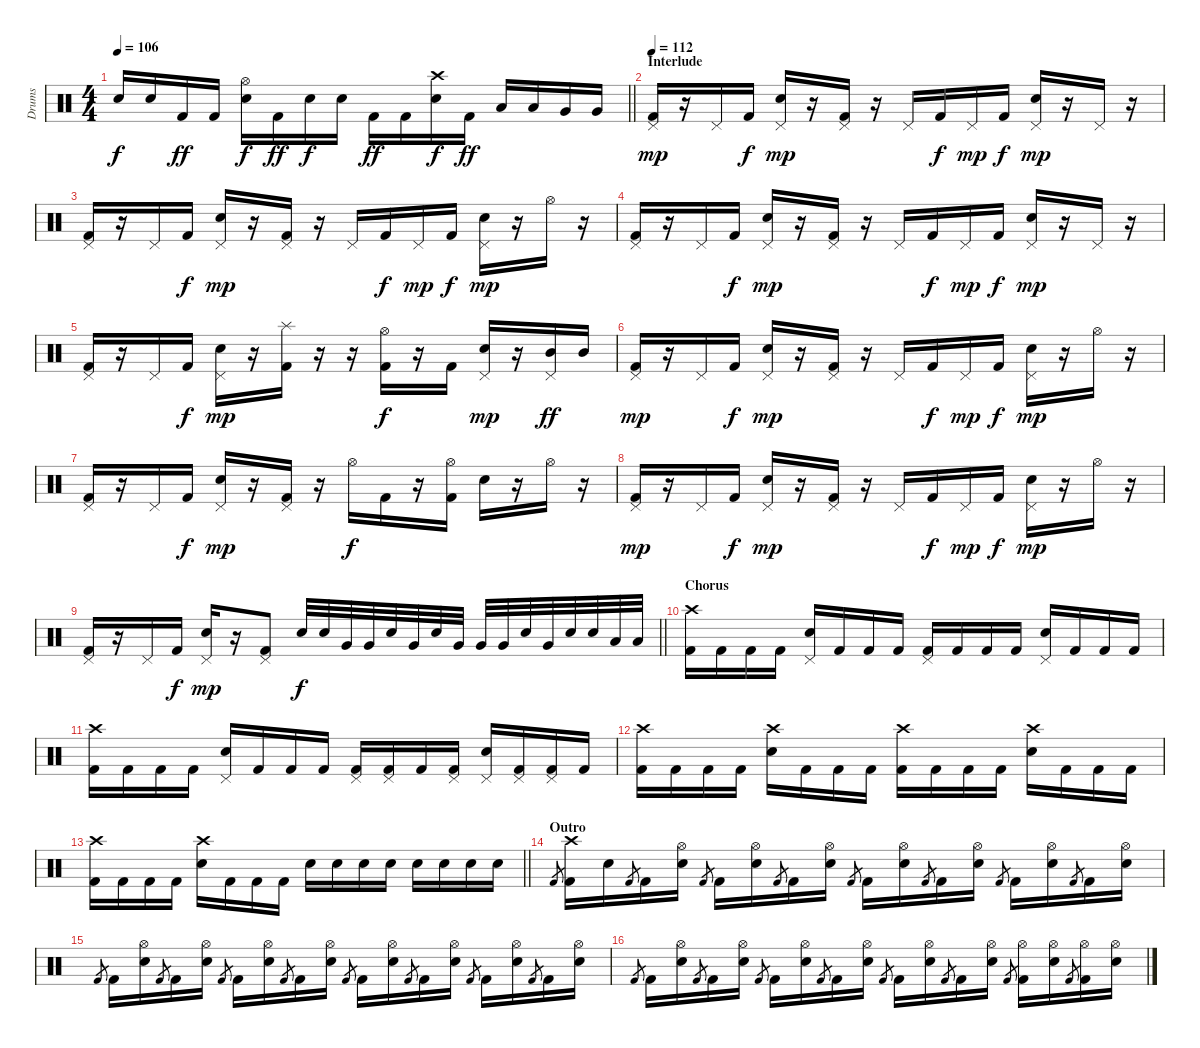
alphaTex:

\track ("Drums" "Drums") {instrument percussion}
\staff {score}
\articulation defaults
\ts (4 4)
\tempo 106
\clef neutral
\barLineRight lightlight
\ks c "Snare (hit) 2".16{dy f} "Snare (hit) 2".16 "Kick (hit) 2".16{dy ff} "Kick (hit) 2".16
("Hi-Hat (open)" "Snare (hit) 2").16{dy f} "Kick (hit) 2".16{dy ff} "Snare (hit) 2".16{dy f} "Snare (hit) 2".16 "Kick (hit) 2".16{dy ff} "Kick (hit) 2".16 ("Crash high (hit)" "Snare (hit) 2").16{dy f} "Kick (hit) 2".16{dy ff} "Low Tom (hit)".16 "Low Tom (hit)".16 "Very Low Tom (hit)".16 "Very Low Tom (hit)".16 |
\section ("" "Interlude")
\tempo 112
("Pedal Hi-Hat (hit)" "Kick (hit) 2").16{dy mp} r.16 "Pedal Hi-Hat (hit)".16 "Kick (hit) 2".16{dy f} ("Pedal Hi-Hat (hit)" "Snare (hit) 2").16{dy mp} r.16 ("Pedal Hi-Hat (hit)" "Kick (hit) 2").16 r.16 "Pedal Hi-Hat (hit)".16 "Kick (hit) 2".16{dy f} "Pedal Hi-Hat (hit)".16{dy mp} "Kick (hit) 2".16{dy f} ("Pedal Hi-Hat (hit)" "Snare (hit) 2").16{dy mp} r.16 "Pedal Hi-Hat (hit)".16 r.16 |
("Pedal Hi-Hat (hit)" "Kick (hit) 2").16 r.16 "Pedal Hi-Hat (hit)".16 "Kick (hit) 2".16{dy f} ("Pedal Hi-Hat (hit)" "Snare (hit) 2").16{dy mp} r.16 ("Pedal Hi-Hat (hit)" "Kick (hit) 2").16 r.16 "Pedal Hi-Hat (hit)".16 "Kick (hit) 2".16{dy f} "Pedal Hi-Hat (hit)".16{dy mp} "Kick (hit) 2".16{dy f} ("Pedal Hi-Hat (hit)" "Snare (hit) 2").16{dy mp} r.16 "Hi-Hat (open)".16 r.16 |
("Pedal Hi-Hat (hit)" "Kick (hit) 2").16 r.16 "Pedal Hi-Hat (hit)".16 "Kick (hit) 2".16{dy f} ("Pedal Hi-Hat (hit)" "Snare (hit) 2").16{dy mp} r.16 ("Pedal Hi-Hat (hit)" "Kick (hit) 2").16 r.16 "Pedal Hi-Hat (hit)".16 "Kick (hit) 2".16{dy f} "Pedal Hi-Hat (hit)".16{dy mp} "Kick (hit) 2".16{dy f} ("Pedal Hi-Hat (hit)" "Snare (hit) 2").16{dy mp} r.16 "Pedal Hi-Hat (hit)".16 r.16 |
("Pedal Hi-Hat (hit)" "Kick (hit) 2").16 r.16 "Pedal Hi-Hat (hit)".16 "Kick (hit) 2".16{dy f} ("Pedal Hi-Hat (hit)" "Snare (hit) 2").16{dy mp} r.16 ("Splash (hit)" "Kick (hit) 2").16 r.16 r.16 ("Hi-Hat (open)" "Kick (hit) 2").16{dy f} r.16 "Kick (hit) 2".16 ("Pedal Hi-Hat (hit)" "Snare (hit) 2").16{dy mp} r.16 ("Pedal Hi-Hat (hit)" "Mid Tom (hit)").16{dy ff} "Mid Tom (hit)".16 |
("Pedal Hi-Hat (hit)" "Kick (hit) 2").16{dy mp} r.16 "Pedal Hi-Hat (hit)".16 "Kick (hit) 2".16{dy f} ("Pedal Hi-Hat (hit)" "Snare (hit) 2").16{dy mp} r.16 ("Pedal Hi-Hat (hit)" "Kick (hit) 2").16 r.16 "Pedal Hi-Hat (hit)".16 "Kick (hit) 2".16{dy f} "Pedal Hi-Hat (hit)".16{dy mp} "Kick (hit) 2".16{dy f} ("Pedal Hi-Hat (hit)" "Snare (hit) 2").16{dy mp} r.16 "Hi-Hat (open)".16 r.16 |
("Pedal Hi-Hat (hit)" "Kick (hit) 2").16 r.16 "Pedal Hi-Hat (hit)".16 "Kick (hit) 2".16{dy f} ("Pedal Hi-Hat (hit)" "Snare (hit) 2").16{dy mp} r.16 ("Pedal Hi-Hat (hit)" "Kick (hit) 2").16 r.16 "Hi-Hat (open)".16{dy f} "Kick (hit) 2".16 r.16 ("Hi-Hat (open)" "Kick (hit) 2").16 "Snare (hit) 2".16 r.16 "Hi-Hat (open)".16 r.16 |
("Pedal Hi-Hat (hit)" "Kick (hit) 2").16{dy mp} r.16 "Pedal Hi-Hat (hit)".16 "Kick (hit) 2".16{dy f} ("Pedal Hi-Hat (hit)" "Snare (hit) 2").16{dy mp} r.16 ("Pedal Hi-Hat (hit)" "Kick (hit) 2").16 r.16 "Pedal Hi-Hat (hit)".16 "Kick (hit) 2".16{dy f} "Pedal Hi-Hat (hit)".16{dy mp} "Kick (hit) 2".16{dy f} ("Pedal Hi-Hat (hit)" "Snare (hit) 2").16{dy mp} r.16 "Hi-Hat (open)".16 r.16 |
\barLineRight lightlight
("Pedal Hi-Hat (hit)" "Kick (hit) 2").16 r.16 "Pedal Hi-Hat (hit)".16 "Kick (hit) 2".16{dy f} ("Pedal Hi-Hat (hit)" "Snare (hit) 2").16{dy mp} r.16 ("Pedal Hi-Hat (hit)" "Kick (hit) 2").8 "Snare (hit) 2".32{dy f} "Snare (hit) 2".32 "Very Low Tom (hit)".32 "Very Low Tom (hit)".32 "Snare (hit) 2".32 "Very Low Tom (hit)".32 "Snare (hit) 2".32 "Very Low Tom (hit)".32 "Very Low Tom (hit)".32 "Very Low Tom (hit)".32 "Snare (hit) 2".32 "Very Low Tom (hit)".32 "Snare (hit) 2".32 "Snare (hit) 2".32 "Low Floor Tom (hit)".32 "Low Floor Tom (hit)".32 |
\section ("" "Chorus")
("Crash high (hit)" "Kick (hit) 2").16 "Kick (hit) 2".16 "Kick (hit) 2".16 "Kick (hit) 2".16 ("Pedal Hi-Hat (hit)" "Snare (hit) 2").16 "Kick (hit) 2".16 "Kick (hit) 2".16 "Kick (hit) 2".16 ("Pedal Hi-Hat (hit)" "Kick (hit) 2").16 "Kick (hit) 2".16 "Kick (hit) 2".16 "Kick (hit) 2".16 ("Pedal Hi-Hat (hit)" "Snare (hit) 2").16 "Kick (hit) 2".16 "Kick (hit) 2".16 "Kick (hit) 2".16 |
("Crash high (hit)" "Kick (hit) 2").16 "Kick (hit) 2".16 "Kick (hit) 2".16 "Kick (hit) 2".16 ("Pedal Hi-Hat (hit)" "Snare (hit) 2").16 "Kick (hit) 2".16 "Kick (hit) 2".16 "Kick (hit) 2".16 ("Pedal Hi-Hat (hit)" "Kick (hit) 2").16 ("Pedal Hi-Hat (hit)" "Kick (hit) 2").16 "Kick (hit) 2".16 ("Pedal Hi-Hat (hit)" "Kick (hit) 2").16 ("Pedal Hi-Hat (hit)" "Snare (hit) 2").16 ("Pedal Hi-Hat (hit)" "Kick (hit) 2").16 ("Pedal Hi-Hat (hit)" "Kick (hit) 2").16 "Kick (hit) 2".16 |
("Crash high (hit)" "Kick (hit) 2").16 "Kick (hit) 2".16 "Kick (hit) 2".16 "Kick (hit) 2".16 ("Crash high (hit)" "Snare (hit) 2").16 "Kick (hit) 2".16 "Kick (hit) 2".16 "Kick (hit) 2".16 ("Crash high (hit)" "Kick (hit) 2").16 "Kick (hit) 2".16 "Kick (hit) 2".16 "Kick (hit) 2".16 ("Crash high (hit)" "Snare (hit) 2").16 "Kick (hit) 2".16 "Kick (hit) 2".16 "Kick (hit) 2".16 |
\barLineRight lightlight
("Crash high (hit)" "Kick (hit) 2").16 "Kick (hit) 2".16 "Kick (hit) 2".16 "Kick (hit) 2".16 ("Crash high (hit)" "Snare (hit) 2").16 "Kick (hit) 2".16 "Kick (hit) 2".16 "Kick (hit) 2".16 "Snare (hit) 2".16 "Snare (hit) 2".16 "Snare (hit) 2".16 "Snare (hit) 2".16 "Snare (hit) 2".16 "Snare (hit) 2".16 "Snare (hit) 2".16 "Snare (hit) 2".16 |
\section ("" "Outro")
"Kick (hit) 2".8{gr} ("Crash high (hit)" "Kick (hit) 2").16 "Snare (hit) 2".16 "Kick (hit) 2".8{gr} "Kick (hit) 2".16 ("Hi-Hat (open)" "Snare (hit) 2").16 "Kick (hit) 2".8{gr} "Kick (hit) 2".16 ("Hi-Hat (open)" "Snare (hit) 2").16 "Kick (hit) 2".8{gr} "Kick (hit) 2".16 ("Hi-Hat (open)" "Snare (hit) 2").16 "Kick (hit) 2".8{gr} "Kick (hit) 2".16 ("Hi-Hat (open)" "Snare (hit) 2").16 "Kick (hit) 2".8{gr} "Kick (hit) 2".16 ("Hi-Hat (open)" "Snare (hit) 2").16 "Kick (hit) 2".8{gr} "Kick (hit) 2".16 ("Hi-Hat (open)" "Snare (hit) 2").16 "Kick (hit) 2".8{gr} "Kick (hit) 2".16 ("Hi-Hat (open)" "Snare (hit) 2").16 |
"Kick (hit) 2".8{gr} "Kick (hit) 2".16 ("Hi-Hat (open)" "Snare (hit) 2").16 "Kick (hit) 2".8{gr} "Kick (hit) 2".16 ("Hi-Hat (open)" "Snare (hit) 2").16 "Kick (hit) 2".8{gr} "Kick (hit) 2".16 ("Hi-Hat (open)" "Snare (hit) 2").16 "Kick (hit) 2".8{gr} "Kick (hit) 2".16 ("Hi-Hat (open)" "Snare (hit) 2").16 "Kick (hit) 2".8{gr} "Kick (hit) 2".16 ("Hi-Hat (open)" "Snare (hit) 2").16 "Kick (hit) 2".8{gr} "Kick (hit) 2".16 ("Hi-Hat (open)" "Snare (hit) 2").16 "Kick (hit) 2".8{gr} "Kick (hit) 2".16 ("Hi-Hat (open)" "Snare (hit) 2").16 "Kick (hit) 2".8{gr} "Kick (hit) 2".16 ("Hi-Hat (open)" "Snare (hit) 2").16 |
"Kick (hit) 2".8{gr} "Kick (hit) 2".16 ("Hi-Hat (open)" "Snare (hit) 2").16 "Kick (hit) 2".8{gr} "Kick (hit) 2".16 ("Hi-Hat (open)" "Snare (hit) 2").16 "Kick (hit) 2".8{gr} "Kick (hit) 2".16 ("Hi-Hat (open)" "Snare (hit) 2").16 "Kick (hit) 2".8{gr} "Kick (hit) 2".16 ("Hi-Hat (open)" "Snare (hit) 2").16 "Kick (hit) 2".8{gr} "Kick (hit) 2".16 ("Hi-Hat (open)" "Snare (hit) 2").16 "Kick (hit) 2".8{gr} "Kick (hit) 2".16 ("Hi-Hat (open)" "Snare (hit) 2").16 "Kick (hit) 2".8{gr} ("Hi-Hat (open)" "Kick (hit) 2").16 ("Hi-Hat (open)" "Snare (hit) 2").16 "Kick (hit) 2".8{gr} ("Hi-Hat (open)" "Kick (hit) 2").16 ("Hi-Hat (open)" "Snare (hit) 2").16
